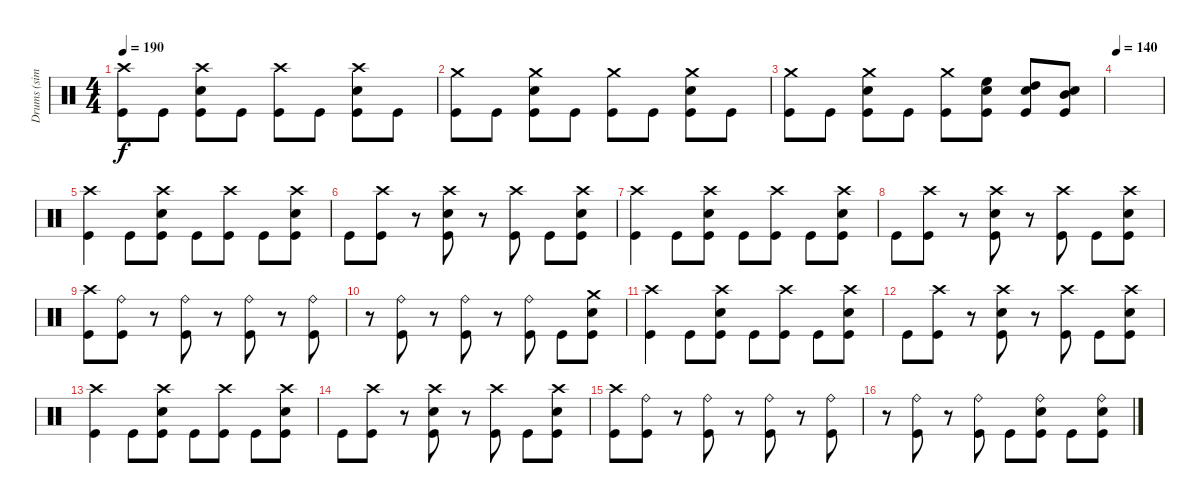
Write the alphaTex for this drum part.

\track ("Drums (simple)" "Drums (sim") {instrument percussion}
\staff {score}
\articulation defaults
\ts (4 4)
\tempo 190
\clef neutral
\ks c
("Crash high (hit)" "Kick (hit)").8{dy f} "Kick (hit)".8 ("Crash high (hit)" "Snare (hit) 2" "Kick (hit)").8 "Kick (hit)".8 ("Crash high (hit)" "Kick (hit)").8 "Kick (hit)".8 ("Crash high (hit)" "Snare (hit) 2" "Kick (hit)").8 "Kick (hit)".8 |
("Crash medium (hit)" "Kick (hit)").8 "Kick (hit)".8 ("Crash medium (hit)" "Snare (hit) 2" "Kick (hit)").8 "Kick (hit)".8 ("Crash medium (hit)" "Kick (hit)").8 "Kick (hit)".8 ("Crash medium (hit)" "Snare (hit) 2" "Kick (hit)").8 "Kick (hit)".8 |
("Crash medium (hit)" "Kick (hit)").8 "Kick (hit)".8 ("Crash medium (hit)" "Snare (hit) 2" "Kick (hit)").8 "Kick (hit)".8 ("Crash medium (hit)" "Kick (hit)").8 ("High Floor Tom (hit)" "Snare (hit) 2" "Kick (hit)").8 ("High Tom (hit)" "Snare (hit) 2" "Kick (hit)").8 ("Mid Tom (hit)" "Snare (hit) 2" "Kick (hit)").8 |
\tempo 140
|
("Crash high (hit)" "Kick (hit)").4 "Kick (hit)".8 ("Crash high (hit)" "Snare (hit) 2" "Kick (hit)").8 "Kick (hit)".8 ("Crash high (hit)" "Kick (hit)").8 "Kick (hit)".8 ("Crash high (hit)" "Snare (hit) 2" "Kick (hit)").8 |
"Kick (hit)".8 ("Crash high (hit)" "Kick (hit)").8 r.8 ("Crash high (hit)" "Snare (hit) 2" "Kick (hit)").8 r.8 ("Crash high (hit)" "Kick (hit)").8 "Kick (hit)".8 ("Crash high (hit)" "Snare (hit) 2" "Kick (hit)").8 |
("Crash high (hit)" "Kick (hit)").4 "Kick (hit)".8 ("Crash high (hit)" "Snare (hit) 2" "Kick (hit)").8 "Kick (hit)".8 ("Crash high (hit)" "Kick (hit)").8 "Kick (hit)".8 ("Crash high (hit)" "Snare (hit) 2" "Kick (hit)").8 |
"Kick (hit)".8 ("Crash high (hit)" "Kick (hit)").8 r.8 ("Crash high (hit)" "Snare (hit) 2" "Kick (hit)").8 r.8 ("Crash high (hit)" "Kick (hit)").8 "Kick (hit)".8 ("Crash high (hit)" "Snare (hit) 2" "Kick (hit)").8 |
("Crash high (hit)" "Kick (hit)").8 ("Ride (bell)" "Kick (hit)").8 r.8 ("Ride (bell)" "Kick (hit)").8 r.8 ("Ride (bell)" "Kick (hit)").8 r.8 ("Ride (bell)" "Kick (hit)").8 |
r.8 ("Ride (bell)" "Kick (hit)").8 r.8 ("Ride (bell)" "Kick (hit)").8 r.8 ("Ride (bell)" "Kick (hit)").8 "Kick (hit)".8 ("Crash medium (hit)" "Snare (hit) 2" "Kick (hit)").8 |
("Crash high (hit)" "Kick (hit)").4 "Kick (hit)".8 ("Crash high (hit)" "Snare (hit) 2" "Kick (hit)").8 "Kick (hit)".8 ("Crash high (hit)" "Kick (hit)").8 "Kick (hit)".8 ("Crash high (hit)" "Snare (hit) 2" "Kick (hit)").8 |
"Kick (hit)".8 ("Crash high (hit)" "Kick (hit)").8 r.8 ("Crash high (hit)" "Snare (hit) 2" "Kick (hit)").8 r.8 ("Crash high (hit)" "Kick (hit)").8 "Kick (hit)".8 ("Crash high (hit)" "Snare (hit) 2" "Kick (hit)").8 |
("Crash high (hit)" "Kick (hit)").4 "Kick (hit)".8 ("Crash high (hit)" "Snare (hit) 2" "Kick (hit)").8 "Kick (hit)".8 ("Crash high (hit)" "Kick (hit)").8 "Kick (hit)".8 ("Crash high (hit)" "Snare (hit) 2" "Kick (hit)").8 |
"Kick (hit)".8 ("Crash high (hit)" "Kick (hit)").8 r.8 ("Crash high (hit)" "Snare (hit) 2" "Kick (hit)").8 r.8 ("Crash high (hit)" "Kick (hit)").8 "Kick (hit)".8 ("Crash high (hit)" "Snare (hit) 2" "Kick (hit)").8 |
("Crash high (hit)" "Kick (hit)").8 ("Ride (bell)" "Kick (hit)").8 r.8 ("Ride (bell)" "Kick (hit)").8 r.8 ("Ride (bell)" "Kick (hit)").8 r.8 ("Ride (bell)" "Kick (hit)").8 |
r.8 ("Ride (bell)" "Kick (hit)").8 r.8 ("Ride (bell)" "Kick (hit)").8 "Kick (hit)".8 ("Ride (bell)" "Snare (hit) 2" "Kick (hit)").8 "Kick (hit)".8 ("Ride (bell)" "Snare (hit) 2" "Kick (hit)").8
